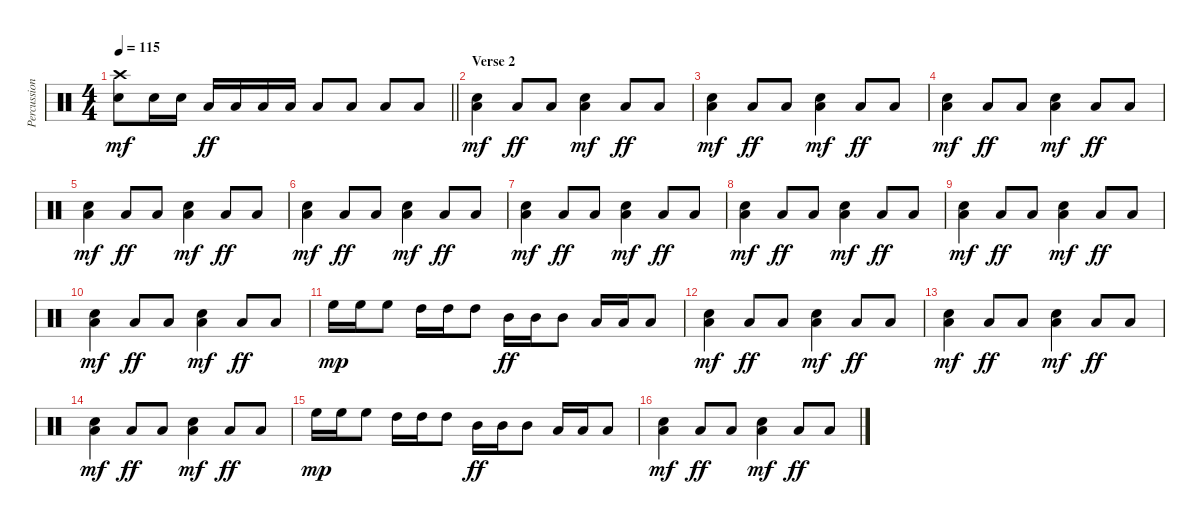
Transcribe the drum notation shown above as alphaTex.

\track ("Percussion" "Percussion") {instrument percussion}
\staff {score}
\articulation defaults
\ts (4 4)
\tempo 115
\clef neutral
\barLineRight lightlight
\ks c
("Crash high (hit)" "Snare (hit) 2").8{dy mf} "Snare (hit) 2".16 "Snare (hit) 2".16 "Low Tom (hit)".16{dy ff} "Low Tom (hit)".16 "Low Tom (hit)".16 "Low Tom (hit)".16 "Low Floor Tom (hit)".8 "Low Floor Tom (hit)".8 "Low Floor Tom (hit)".8 "Low Floor Tom (hit)".8 |
\section ("" "Verse 2")
("Low Floor Tom (hit)" "Snare (hit) 2").4{dy mf} "Low Floor Tom (hit)".8{dy ff} "Low Floor Tom (hit)".8 ("Low Floor Tom (hit)" "Snare (hit) 2").4{dy mf} "Low Floor Tom (hit)".8{dy ff} "Low Floor Tom (hit)".8 |
("Low Floor Tom (hit)" "Snare (hit) 2").4{dy mf} "Low Floor Tom (hit)".8{dy ff} "Low Floor Tom (hit)".8 ("Low Floor Tom (hit)" "Snare (hit) 2").4{dy mf} "Low Floor Tom (hit)".8{dy ff} "Low Floor Tom (hit)".8 |
("Low Floor Tom (hit)" "Snare (hit) 2").4{dy mf} "Low Floor Tom (hit)".8{dy ff} "Low Floor Tom (hit)".8 ("Low Floor Tom (hit)" "Snare (hit) 2").4{dy mf} "Low Floor Tom (hit)".8{dy ff} "Low Floor Tom (hit)".8 |
("Low Floor Tom (hit)" "Snare (hit) 2").4{dy mf} "Low Floor Tom (hit)".8{dy ff} "Low Floor Tom (hit)".8 ("Low Floor Tom (hit)" "Snare (hit) 2").4{dy mf} "Low Floor Tom (hit)".8{dy ff} "Low Floor Tom (hit)".8 |
("Low Floor Tom (hit)" "Snare (hit) 2").4{dy mf} "Low Floor Tom (hit)".8{dy ff} "Low Floor Tom (hit)".8 ("Low Floor Tom (hit)" "Snare (hit) 2").4{dy mf} "Low Floor Tom (hit)".8{dy ff} "Low Floor Tom (hit)".8 |
("Low Floor Tom (hit)" "Snare (hit) 2").4{dy mf} "Low Floor Tom (hit)".8{dy ff} "Low Floor Tom (hit)".8 ("Low Floor Tom (hit)" "Snare (hit) 2").4{dy mf} "Low Floor Tom (hit)".8{dy ff} "Low Floor Tom (hit)".8 |
("Low Floor Tom (hit)" "Snare (hit) 2").4{dy mf} "Low Floor Tom (hit)".8{dy ff} "Low Floor Tom (hit)".8 ("Low Floor Tom (hit)" "Snare (hit) 2").4{dy mf} "Low Floor Tom (hit)".8{dy ff} "Low Floor Tom (hit)".8 |
("Low Floor Tom (hit)" "Snare (hit) 2").4{dy mf} "Low Floor Tom (hit)".8{dy ff} "Low Floor Tom (hit)".8 ("Low Floor Tom (hit)" "Snare (hit) 2").4{dy mf} "Low Floor Tom (hit)".8{dy ff} "Low Floor Tom (hit)".8 |
("Low Floor Tom (hit)" "Snare (hit) 2").4{dy mf} "Low Floor Tom (hit)".8{dy ff} "Low Floor Tom (hit)".8 ("Low Floor Tom (hit)" "Snare (hit) 2").4{dy mf} "Low Floor Tom (hit)".8{dy ff} "Low Floor Tom (hit)".8 |
"High Floor Tom (hit)".16{dy mp} "High Floor Tom (hit)".16 "High Floor Tom (hit)".8 "High Tom (hit)".16 "High Tom (hit)".16 "High Tom (hit)".8 "Mid Tom (hit)".16{dy ff} "Mid Tom (hit)".16 "Mid Tom (hit)".8 "Low Tom (hit)".16 "Low Tom (hit)".16 "Low Tom (hit)".8 |
("Low Floor Tom (hit)" "Snare (hit) 2").4{dy mf} "Low Floor Tom (hit)".8{dy ff} "Low Floor Tom (hit)".8 ("Low Floor Tom (hit)" "Snare (hit) 2").4{dy mf} "Low Floor Tom (hit)".8{dy ff} "Low Floor Tom (hit)".8 |
("Low Floor Tom (hit)" "Snare (hit) 2").4{dy mf} "Low Floor Tom (hit)".8{dy ff} "Low Floor Tom (hit)".8 ("Low Floor Tom (hit)" "Snare (hit) 2").4{dy mf} "Low Floor Tom (hit)".8{dy ff} "Low Floor Tom (hit)".8 |
("Low Floor Tom (hit)" "Snare (hit) 2").4{dy mf} "Low Floor Tom (hit)".8{dy ff} "Low Floor Tom (hit)".8 ("Low Floor Tom (hit)" "Snare (hit) 2").4{dy mf} "Low Floor Tom (hit)".8{dy ff} "Low Floor Tom (hit)".8 |
"High Floor Tom (hit)".16{dy mp} "High Floor Tom (hit)".16 "High Floor Tom (hit)".8 "High Tom (hit)".16 "High Tom (hit)".16 "High Tom (hit)".8 "Mid Tom (hit)".16{dy ff} "Mid Tom (hit)".16 "Mid Tom (hit)".8 "Low Tom (hit)".16 "Low Tom (hit)".16 "Low Tom (hit)".8 |
("Low Floor Tom (hit)" "Snare (hit) 2").4{dy mf} "Low Floor Tom (hit)".8{dy ff} "Low Floor Tom (hit)".8 ("Low Floor Tom (hit)" "Snare (hit) 2").4{dy mf} "Low Floor Tom (hit)".8{dy ff} "Low Floor Tom (hit)".8
